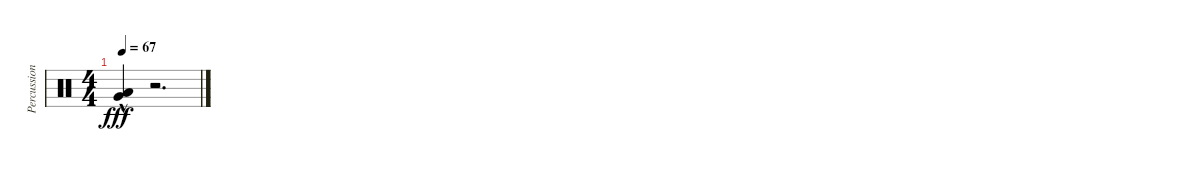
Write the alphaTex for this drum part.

\track ("Percussion" "Percussion") {instrument percussion}
\staff {score}
\articulation defaults
\ts (4 4)
\tempo 67
\clef neutral
\ks c
("Very Low Tom (hit)"{hac} "Low Floor Tom (hit)"{hac}).4{dy fff} r.2{d}
